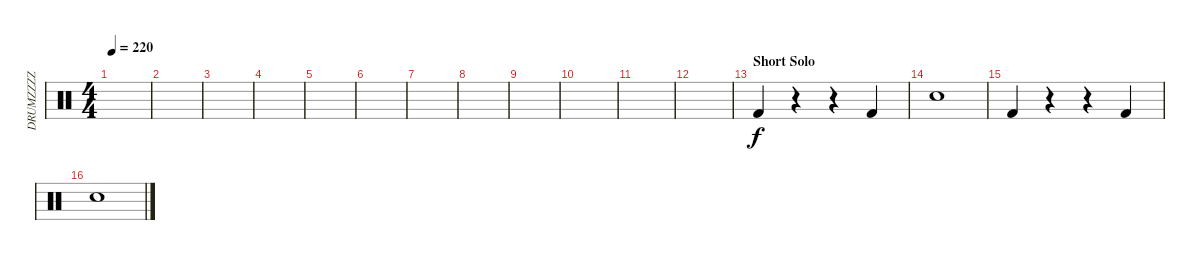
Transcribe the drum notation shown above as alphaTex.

\track ("DRUMZZZZ" "DRUMZZZZ") {instrument percussion}
\staff {score}
\articulation defaults
\ts (4 4)
\tempo 220
\clef neutral
\ks c
|
|
|
|
|
|
|
|
|
|
|
|
\section ("" "Short Solo")
"Kick (hit) 2".4{volume 16} r.4 r.4 "Kick (hit) 2".4 |
"Snare (hit) 2".1 |
"Kick (hit) 2".4 r.4 r.4 "Kick (hit) 2".4 |
"Snare (hit) 2".1
